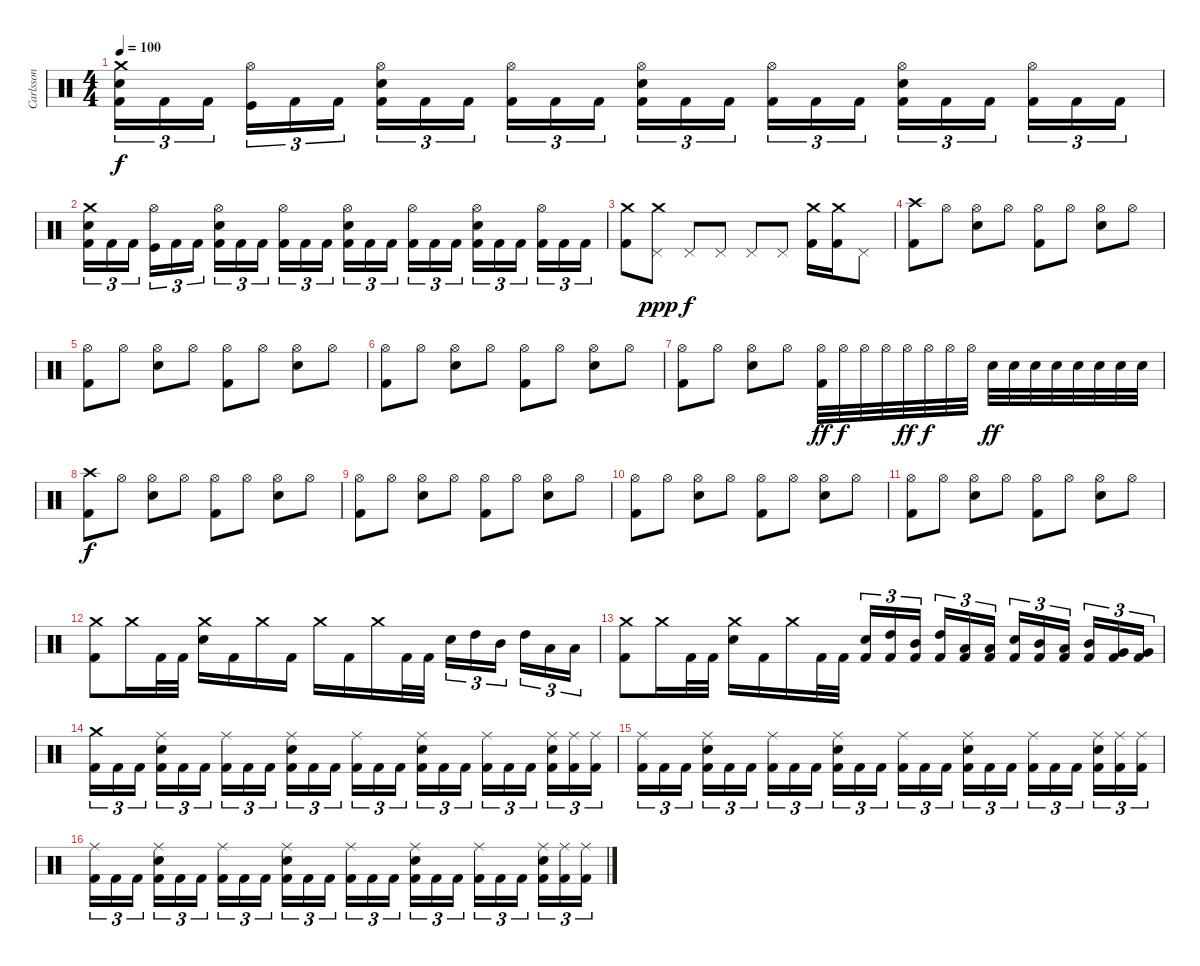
\track ("Carlsson" "Carlsson") {instrument percussion}
\staff {score}
\articulation defaults
\ts (4 4)
\tempo 100
\clef neutral
\ks c
("Crash medium (hit)" "Electric Snare (hit)" "Kick (hit) 2").16{tu (3 2) dy f} "Kick (hit) 2".16{tu (3 2)} "Kick (hit) 2".16{tu (3 2)} ("Hi-Hat (open)" "Kick (hit)").16{tu (3 2)} "Kick (hit) 2".16{tu (3 2)} "Kick (hit) 2".16{tu (3 2)} ("Hi-Hat (open)" "Electric Snare (hit)" "Kick (hit) 2").16{tu (3 2)} "Kick (hit) 2".16{tu (3 2)} "Kick (hit) 2".16{tu (3 2)} ("Hi-Hat (open)" "Kick (hit) 2").16{tu (3 2)} "Kick (hit) 2".16{tu (3 2)} "Kick (hit) 2".16{tu (3 2)} ("Hi-Hat (open)" "Electric Snare (hit)" "Kick (hit) 2").16{tu (3 2)} "Kick (hit) 2".16{tu (3 2)} "Kick (hit) 2".16{tu (3 2)} ("Hi-Hat (open)" "Kick (hit) 2").16{tu (3 2)} "Kick (hit) 2".16{tu (3 2)} "Kick (hit) 2".16{tu (3 2)} ("Hi-Hat (open)" "Electric Snare (hit)" "Kick (hit) 2").16{tu (3 2)} "Kick (hit) 2".16{tu (3 2)} "Kick (hit) 2".16{tu (3 2)} ("Hi-Hat (open)" "Kick (hit) 2").16{tu (3 2)} "Kick (hit) 2".16{tu (3 2)} "Kick (hit) 2".16{tu (3 2)} |
("Crash medium (hit)" "Electric Snare (hit)" "Kick (hit) 2").16{tu (3 2)} "Kick (hit) 2".16{tu (3 2)} "Kick (hit) 2".16{tu (3 2)} ("Hi-Hat (open)" "Kick (hit)").16{tu (3 2)} "Kick (hit) 2".16{tu (3 2)} "Kick (hit) 2".16{tu (3 2)} ("Hi-Hat (open)" "Electric Snare (hit)" "Kick (hit) 2").16{tu (3 2)} "Kick (hit) 2".16{tu (3 2)} "Kick (hit) 2".16{tu (3 2)} ("Hi-Hat (open)" "Kick (hit) 2").16{tu (3 2)} "Kick (hit) 2".16{tu (3 2)} "Kick (hit) 2".16{tu (3 2)} ("Hi-Hat (open)" "Electric Snare (hit)" "Kick (hit) 2").16{tu (3 2)} "Kick (hit) 2".16{tu (3 2)} "Kick (hit) 2".16{tu (3 2)} ("Hi-Hat (open)" "Kick (hit) 2").16{tu (3 2)} "Kick (hit) 2".16{tu (3 2)} "Kick (hit) 2".16{tu (3 2)} ("Hi-Hat (open)" "Electric Snare (hit)" "Kick (hit) 2").16{tu (3 2)} "Kick (hit) 2".16{tu (3 2)} "Kick (hit) 2".16{tu (3 2)} ("Hi-Hat (open)" "Kick (hit) 2").16{tu (3 2)} "Kick (hit) 2".16{tu (3 2)} "Kick (hit) 2".16{tu (3 2)} |
("Crash medium (hit)" "Kick (hit) 2").8 ("Crash medium (hit)" "Pedal Hi-Hat (hit)").8{dy ppp} "Pedal Hi-Hat (hit)".8{dy f} "Pedal Hi-Hat (hit)".8 "Pedal Hi-Hat (hit)".8 "Pedal Hi-Hat (hit)".8 ("Crash medium (hit)" "Kick (hit) 2").16 ("Crash medium (hit)" "Kick (hit) 2").16 "Pedal Hi-Hat (hit)".8 |
("Crash high (hit)" "Kick (hit) 2").8 "Hi-Hat (open)".8 ("Hi-Hat (open)" "Electric Snare (hit)").8 "Hi-Hat (open)".8 ("Hi-Hat (open)" "Kick (hit) 2").8 "Hi-Hat (open)".8 ("Hi-Hat (open)" "Electric Snare (hit)").8 "Hi-Hat (open)".8 |
("Hi-Hat (open)" "Kick (hit) 2").8 "Hi-Hat (open)".8 ("Hi-Hat (open)" "Electric Snare (hit)").8 "Hi-Hat (open)".8 ("Hi-Hat (open)" "Kick (hit) 2").8 "Hi-Hat (open)".8 ("Hi-Hat (open)" "Electric Snare (hit)").8 "Hi-Hat (open)".8 |
("Hi-Hat (open)" "Kick (hit) 2").8 "Hi-Hat (open)".8 ("Hi-Hat (open)" "Electric Snare (hit)").8 "Hi-Hat (open)".8 ("Hi-Hat (open)" "Kick (hit) 2").8 "Hi-Hat (open)".8 ("Hi-Hat (open)" "Electric Snare (hit)").8 "Hi-Hat (open)".8 |
("Hi-Hat (open)" "Kick (hit) 2").8 "Hi-Hat (open)".8 ("Hi-Hat (open)" "Electric Snare (hit)").8 "Hi-Hat (open)".8 ("Hi-Hat (open)" "Kick (hit) 2").32{dy ff} "Hi-Hat (open)".32{dy f} "Hi-Hat (open)".32 "Hi-Hat (open)".32 "Hi-Hat (open)".32{dy ff} "Hi-Hat (open)".32{dy f} "Hi-Hat (open)".32 "Hi-Hat (open)".32 "Electric Snare (hit)".32{dy ff} "Electric Snare (hit)".32 "Electric Snare (hit)".32 "Electric Snare (hit)".32 "Electric Snare (hit)".32 "Electric Snare (hit)".32 "Electric Snare (hit)".32 "Electric Snare (hit)".32 |
("Crash high (hit)" "Kick (hit) 2").8{dy f} "Hi-Hat (open)".8 ("Hi-Hat (open)" "Electric Snare (hit)").8 "Hi-Hat (open)".8 ("Hi-Hat (open)" "Kick (hit) 2").8 "Hi-Hat (open)".8 ("Hi-Hat (open)" "Electric Snare (hit)").8 "Hi-Hat (open)".8 |
("Hi-Hat (open)" "Kick (hit) 2").8 "Hi-Hat (open)".8 ("Hi-Hat (open)" "Electric Snare (hit)").8 "Hi-Hat (open)".8 ("Hi-Hat (open)" "Kick (hit) 2").8 "Hi-Hat (open)".8 ("Hi-Hat (open)" "Electric Snare (hit)").8 "Hi-Hat (open)".8 |
("Hi-Hat (open)" "Kick (hit) 2").8 "Hi-Hat (open)".8 ("Hi-Hat (open)" "Electric Snare (hit)").8 "Hi-Hat (open)".8 ("Hi-Hat (open)" "Kick (hit) 2").8 "Hi-Hat (open)".8 ("Hi-Hat (open)" "Electric Snare (hit)").8 "Hi-Hat (open)".8 |
("Hi-Hat (open)" "Kick (hit) 2").8 "Hi-Hat (open)".8 ("Hi-Hat (open)" "Electric Snare (hit)").8 "Hi-Hat (open)".8 ("Hi-Hat (open)" "Kick (hit) 2").8 "Hi-Hat (open)".8 ("Hi-Hat (open)" "Electric Snare (hit)").8 "Hi-Hat (open)".8 |
("Crash medium (hit)" "Kick (hit) 2").8 "Crash medium (hit)".16 "Kick (hit) 2".32 "Kick (hit) 2".32 ("Crash medium (hit)" "Electric Snare (hit)").16 "Kick (hit) 2".16 "Crash medium (hit)".16 "Kick (hit) 2".16 "Crash medium (hit)".16 "Kick (hit) 2".16 "Crash medium (hit)".16 "Kick (hit) 2".32 "Kick (hit) 2".32 "Electric Snare (hit)".16{tu (3 2)} "High Tom (hit)".16{tu (3 2)} "Mid Tom (hit)".16{tu (3 2)} "High Tom (hit)".16{tu (3 2)} "Low Tom (hit)".16{tu (3 2)} "Low Tom (hit)".16{tu (3 2)} |
("Crash medium (hit)" "Kick (hit) 2").8 "Crash medium (hit)".16 "Kick (hit) 2".32 "Kick (hit) 2".32 ("Crash medium (hit)" "Electric Snare (hit)").16 "Kick (hit) 2".16 "Crash medium (hit)".16 "Kick (hit) 2".32 "Kick (hit) 2".32 ("Electric Snare (hit)" "Kick (hit) 2").16{tu (3 2)} ("High Tom (hit)" "Kick (hit) 2").16{tu (3 2)} ("Mid Tom (hit)" "Kick (hit) 2").16{tu (3 2)} ("High Tom (hit)" "Kick (hit) 2").16{tu (3 2)} ("Low Tom (hit)" "Kick (hit) 2").16{tu (3 2)} ("Low Tom (hit)" "Kick (hit) 2").16{tu (3 2)} ("Electric Snare (hit)" "Kick (hit) 2").16{tu (3 2)} ("Mid Tom (hit)" "Kick (hit) 2").16{tu (3 2)} ("Low Tom (hit)" "Kick (hit) 2").16{tu (3 2)} ("Mid Tom (hit)" "Kick (hit) 2").16{tu (3 2)} ("Very Low Tom (hit)" "Kick (hit) 2").16{tu (3 2)} ("Very Low Tom (hit)" "Kick (hit) 2").16{tu (3 2)} |
("Crash medium (hit)" "Kick (hit) 2").16{tu (3 2)} "Kick (hit) 2".16{tu (3 2)} "Kick (hit) 2".16{tu (3 2)} ("Ride (middle)" "Electric Snare (hit)" "Kick (hit) 2").16{tu (3 2)} "Kick (hit) 2".16{tu (3 2)} "Kick (hit) 2".16{tu (3 2)} ("Ride (middle)" "Kick (hit) 2").16{tu (3 2)} "Kick (hit) 2".16{tu (3 2)} "Kick (hit) 2".16{tu (3 2)} ("Ride (middle)" "Electric Snare (hit)" "Kick (hit) 2").16{tu (3 2)} "Kick (hit) 2".16{tu (3 2)} "Kick (hit) 2".16{tu (3 2)} ("Ride (middle)" "Kick (hit) 2").16{tu (3 2)} "Kick (hit) 2".16{tu (3 2)} "Kick (hit) 2".16{tu (3 2)} ("Ride (middle)" "Electric Snare (hit)" "Kick (hit) 2").16{tu (3 2)} "Kick (hit) 2".16{tu (3 2)} "Kick (hit) 2".16{tu (3 2)} ("Ride (middle)" "Kick (hit) 2").16{tu (3 2)} "Kick (hit) 2".16{tu (3 2)} "Kick (hit) 2".16{tu (3 2)} ("Ride (middle)" "Electric Snare (hit)" "Kick (hit) 2").16{tu (3 2)} ("Ride (middle)" "Kick (hit) 2").16{tu (3 2)} ("Ride (middle)" "Kick (hit) 2").16{tu (3 2)} |
("Ride (middle)" "Kick (hit) 2").16{tu (3 2)} "Kick (hit) 2".16{tu (3 2)} "Kick (hit) 2".16{tu (3 2)} ("Ride (middle)" "Electric Snare (hit)" "Kick (hit) 2").16{tu (3 2)} "Kick (hit) 2".16{tu (3 2)} "Kick (hit) 2".16{tu (3 2)} ("Ride (middle)" "Kick (hit) 2").16{tu (3 2)} "Kick (hit) 2".16{tu (3 2)} "Kick (hit) 2".16{tu (3 2)} ("Ride (middle)" "Electric Snare (hit)" "Kick (hit) 2").16{tu (3 2)} "Kick (hit) 2".16{tu (3 2)} "Kick (hit) 2".16{tu (3 2)} ("Ride (middle)" "Kick (hit) 2").16{tu (3 2)} "Kick (hit) 2".16{tu (3 2)} "Kick (hit) 2".16{tu (3 2)} ("Ride (middle)" "Electric Snare (hit)" "Kick (hit) 2").16{tu (3 2)} "Kick (hit) 2".16{tu (3 2)} "Kick (hit) 2".16{tu (3 2)} ("Ride (middle)" "Kick (hit) 2").16{tu (3 2)} "Kick (hit) 2".16{tu (3 2)} "Kick (hit) 2".16{tu (3 2)} ("Ride (middle)" "Electric Snare (hit)" "Kick (hit) 2").16{tu (3 2)} ("Ride (middle)" "Kick (hit) 2").16{tu (3 2)} ("Ride (middle)" "Kick (hit) 2").16{tu (3 2)} |
("Ride (middle)" "Kick (hit) 2").16{tu (3 2)} "Kick (hit) 2".16{tu (3 2)} "Kick (hit) 2".16{tu (3 2)} ("Ride (middle)" "Electric Snare (hit)" "Kick (hit) 2").16{tu (3 2)} "Kick (hit) 2".16{tu (3 2)} "Kick (hit) 2".16{tu (3 2)} ("Ride (middle)" "Kick (hit) 2").16{tu (3 2)} "Kick (hit) 2".16{tu (3 2)} "Kick (hit) 2".16{tu (3 2)} ("Ride (middle)" "Electric Snare (hit)" "Kick (hit) 2").16{tu (3 2)} "Kick (hit) 2".16{tu (3 2)} "Kick (hit) 2".16{tu (3 2)} ("Ride (middle)" "Kick (hit) 2").16{tu (3 2)} "Kick (hit) 2".16{tu (3 2)} "Kick (hit) 2".16{tu (3 2)} ("Ride (middle)" "Electric Snare (hit)" "Kick (hit) 2").16{tu (3 2)} "Kick (hit) 2".16{tu (3 2)} "Kick (hit) 2".16{tu (3 2)} ("Ride (middle)" "Kick (hit) 2").16{tu (3 2)} "Kick (hit) 2".16{tu (3 2)} "Kick (hit) 2".16{tu (3 2)} ("Ride (middle)" "Electric Snare (hit)" "Kick (hit) 2").16{tu (3 2)} ("Ride (middle)" "Kick (hit) 2").16{tu (3 2)} ("Ride (middle)" "Kick (hit) 2").16{tu (3 2)}
